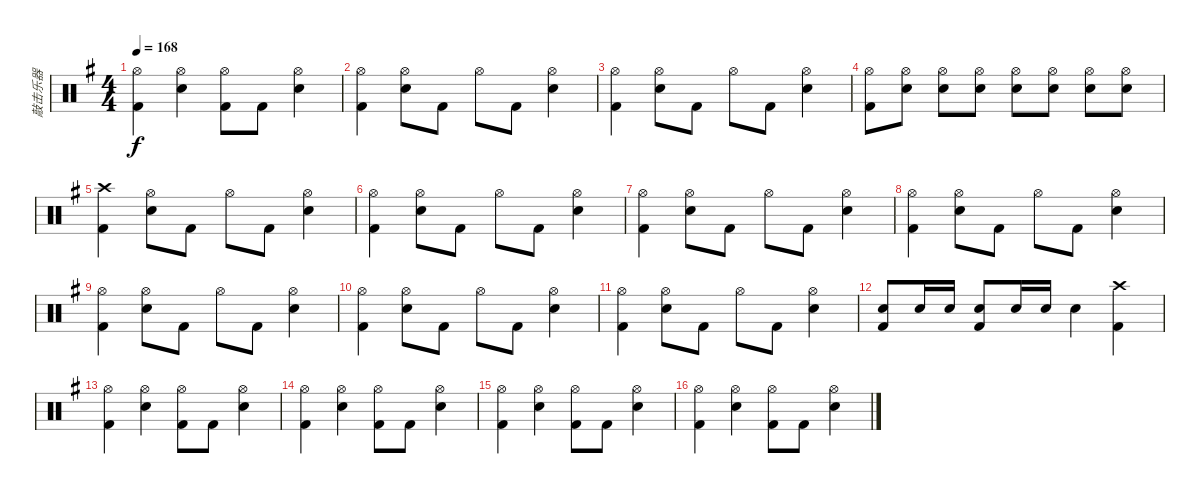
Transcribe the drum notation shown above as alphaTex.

\track ("敲击乐器" "敲击乐器") {instrument percussion}
\staff {score}
\articulation defaults
\ts (4 4)
\tempo 168
\clef neutral
\ks g
("Hi-Hat (open)" "Kick (hit) 2").4{dy f} ("Hi-Hat (open)" "Snare (hit) 2").4 ("Hi-Hat (open)" "Kick (hit) 2").8 "Kick (hit) 2".8 ("Hi-Hat (open)" "Snare (hit) 2").4 |
("Hi-Hat (open)" "Kick (hit) 2").4 ("Hi-Hat (open)" "Snare (hit) 2").8 "Kick (hit) 2".8 "Hi-Hat (open)".8 "Kick (hit) 2".8 ("Hi-Hat (open)" "Snare (hit) 2").4 |
("Hi-Hat (open)" "Kick (hit) 2").4 ("Hi-Hat (open)" "Snare (hit) 2").8 "Kick (hit) 2".8 "Hi-Hat (open)".8 "Kick (hit) 2".8 ("Hi-Hat (open)" "Snare (hit) 2").4 |
("Hi-Hat (open)" "Kick (hit) 2").8 ("Hi-Hat (open)" "Snare (hit) 2").8 ("Hi-Hat (open)" "Snare (hit) 2").8 ("Hi-Hat (open)" "Snare (hit) 2").8 ("Hi-Hat (open)" "Snare (hit) 2").8 ("Hi-Hat (open)" "Snare (hit) 2").8 ("Hi-Hat (open)" "Snare (hit) 2").8 ("Hi-Hat (open)" "Snare (hit) 2").8 |
("Crash high (hit)" "Kick (hit) 2").4 ("Hi-Hat (open)" "Snare (hit) 2").8 "Kick (hit) 2".8 "Hi-Hat (open)".8 "Kick (hit) 2".8 ("Hi-Hat (open)" "Snare (hit) 2").4 |
("Hi-Hat (open)" "Kick (hit) 2").4 ("Hi-Hat (open)" "Snare (hit) 2").8 "Kick (hit) 2".8 "Hi-Hat (open)".8 "Kick (hit) 2".8 ("Hi-Hat (open)" "Snare (hit) 2").4 |
("Hi-Hat (open)" "Kick (hit) 2").4 ("Hi-Hat (open)" "Snare (hit) 2").8 "Kick (hit) 2".8 "Hi-Hat (open)".8 "Kick (hit) 2".8 ("Hi-Hat (open)" "Snare (hit) 2").4 |
("Hi-Hat (open)" "Kick (hit) 2").4 ("Hi-Hat (open)" "Snare (hit) 2").8 "Kick (hit) 2".8 "Hi-Hat (open)".8 "Kick (hit) 2".8 ("Hi-Hat (open)" "Snare (hit) 2").4 |
("Hi-Hat (open)" "Kick (hit) 2").4 ("Hi-Hat (open)" "Snare (hit) 2").8 "Kick (hit) 2".8 "Hi-Hat (open)".8 "Kick (hit) 2".8 ("Hi-Hat (open)" "Snare (hit) 2").4 |
("Hi-Hat (open)" "Kick (hit) 2").4 ("Hi-Hat (open)" "Snare (hit) 2").8 "Kick (hit) 2".8 "Hi-Hat (open)".8 "Kick (hit) 2".8 ("Hi-Hat (open)" "Snare (hit) 2").4 |
("Hi-Hat (open)" "Kick (hit) 2").4 ("Hi-Hat (open)" "Snare (hit) 2").8 "Kick (hit) 2".8 "Hi-Hat (open)".8 "Kick (hit) 2".8 ("Hi-Hat (open)" "Snare (hit) 2").4 |
("Snare (hit) 2" "Kick (hit) 2").8 "Snare (hit) 2".16 "Snare (hit) 2".16 ("Snare (hit) 2" "Kick (hit) 2").8 "Snare (hit) 2".16 "Snare (hit) 2".16 "Snare (hit) 2".4 ("Crash high (hit)" "Kick (hit) 2").4 |
("Hi-Hat (open)" "Kick (hit) 2").4 ("Hi-Hat (open)" "Snare (hit) 2").4 ("Hi-Hat (open)" "Kick (hit) 2").8 "Kick (hit) 2".8 ("Hi-Hat (open)" "Snare (hit) 2").4 |
("Hi-Hat (open)" "Kick (hit) 2").4 ("Hi-Hat (open)" "Snare (hit) 2").4 ("Hi-Hat (open)" "Kick (hit) 2").8 "Kick (hit) 2".8 ("Hi-Hat (open)" "Snare (hit) 2").4 |
("Hi-Hat (open)" "Kick (hit) 2").4 ("Hi-Hat (open)" "Snare (hit) 2").4 ("Hi-Hat (open)" "Kick (hit) 2").8 "Kick (hit) 2".8 ("Hi-Hat (open)" "Snare (hit) 2").4 |
("Hi-Hat (open)" "Kick (hit) 2").4 ("Hi-Hat (open)" "Snare (hit) 2").4 ("Hi-Hat (open)" "Kick (hit) 2").8 "Kick (hit) 2".8 ("Hi-Hat (open)" "Snare (hit) 2").4
